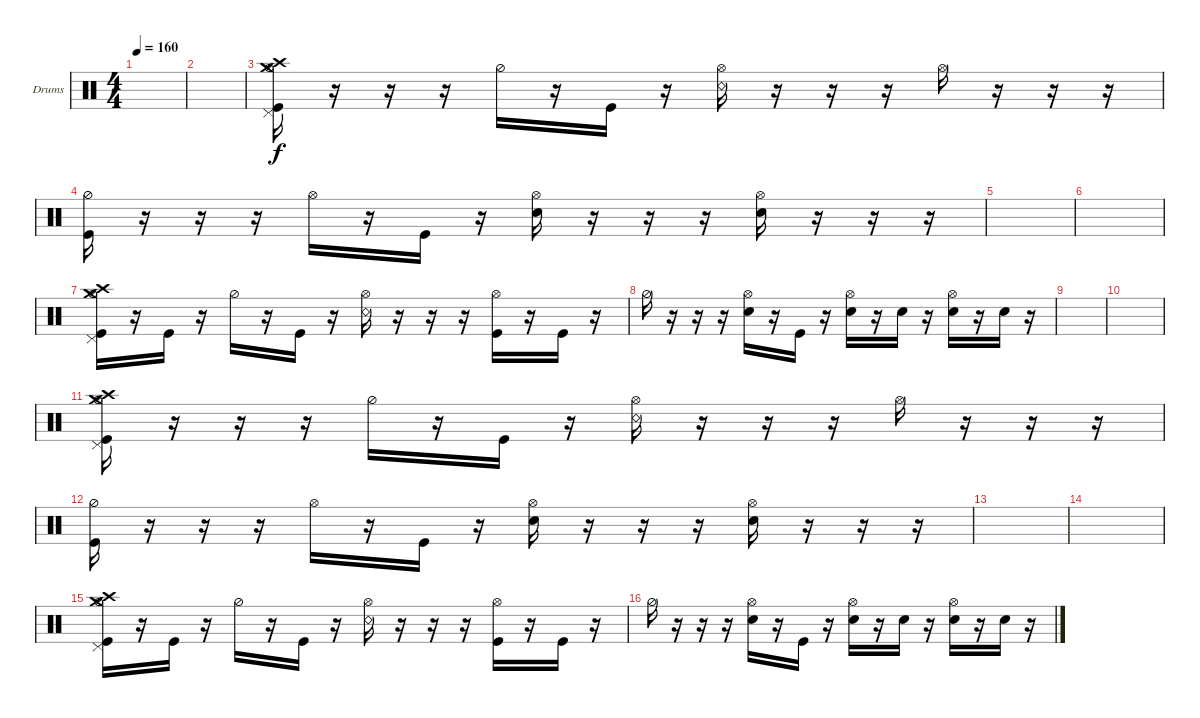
\defaultSystemsLayout 4
\bracketExtendMode groupsimilarinstruments
\firstSystemTrackNameOrientation horizontal
\otherSystemsTrackNameOrientation horizontal
\track ("Drumkit" "Drums") {solo instrument percussion}
\staff {score}
\articulation defaults
\ts (4 4)
\tempo 160
\clef neutral
\scale
0.472222
\ks c
|
\scale
0.263889 |
\scale
0.263889 ("Pedal Hi-Hat (hit)" "Crash medium (hit)" "Kick (hit)" "Hi-Hat (half)" "Crash high (hit)").16 r.16 r.16 r.16 "Hi-Hat (half)".16 r.16 "Kick (hit)".16 r.16 ("Hi-Hat (open)" "Snare (rim shot)").16 r.16 r.16 r.16 "Hi-Hat (open)".16 r.16 r.16 r.16 |
\scale
0.333333 ("Kick (hit)" "Hi-Hat (half)").16 r.16 r.16 r.16 "Hi-Hat (open)".16 r.16 "Kick (hit)".16 r.16 ("Hi-Hat (open)" "Snare (hit) 2").16 r.16 r.16 r.16 ("Hi-Hat (open)" "Snare (hit) 2").16 r.16 r.16 r.16 |
\scale
0.333333 |
\scale
0.333333 |
\scale
0.333333 ("Pedal Hi-Hat (hit)" "Crash medium (hit)" "Kick (hit)" "Hi-Hat (half)" "Crash high (hit)").16 r.16 "Kick (hit)".16 r.16 "Hi-Hat (half)".16 r.16 "Kick (hit)".16 r.16 ("Hi-Hat (open)" "Snare (rim shot)").16 r.16 r.16 r.16 ("Hi-Hat (open)" "Kick (hit)").16 r.16 "Kick (hit)".16 r.16 |
\scale
0.333333 "Hi-Hat (half)".16 r.16 r.16 r.16 ("Snare (hit) 2" "Hi-Hat (open)").16 r.16 "Kick (hit)".16 r.16 ("Hi-Hat (open)" "Snare (hit) 2").16 r.16 "Snare (hit) 2".16 r.16 ("Hi-Hat (open)" "Snare (hit) 2").16 r.16 "Snare (hit) 2".16 r.16 |
\scale
0.333333 |
\scale
0.333333 |
\scale
0.333333 ("Pedal Hi-Hat (hit)" "Crash medium (hit)" "Kick (hit)" "Hi-Hat (half)" "Crash high (hit)").16 r.16 r.16 r.16 "Hi-Hat (half)".16 r.16 "Kick (hit)".16 r.16 ("Hi-Hat (open)" "Snare (rim shot)").16 r.16 r.16 r.16 "Hi-Hat (open)".16 r.16 r.16 r.16 |
\scale
0.333333 ("Kick (hit)" "Hi-Hat (half)").16 r.16 r.16 r.16 "Hi-Hat (open)".16 r.16 "Kick (hit)".16 r.16 ("Hi-Hat (open)" "Snare (hit) 2").16 r.16 r.16 r.16 ("Hi-Hat (open)" "Snare (hit) 2").16 r.16 r.16 r.16 |
\scale
0.333333 |
\scale
0.333333 |
\scale
0.333333 ("Pedal Hi-Hat (hit)" "Crash medium (hit)" "Kick (hit)" "Hi-Hat (half)" "Crash high (hit)").16 r.16 "Kick (hit)".16 r.16 "Hi-Hat (half)".16 r.16 "Kick (hit)".16 r.16 ("Hi-Hat (open)" "Snare (rim shot)").16 r.16 r.16 r.16 ("Hi-Hat (open)" "Kick (hit)").16 r.16 "Kick (hit)".16 r.16 |
"Hi-Hat (half)".16 r.16 r.16 r.16 ("Snare (hit) 2" "Hi-Hat (open)").16 r.16 "Kick (hit)".16 r.16 ("Hi-Hat (open)" "Snare (hit) 2").16 r.16 "Snare (hit) 2".16 r.16 ("Hi-Hat (open)" "Snare (hit) 2").16 r.16 "Snare (hit) 2".16 r.16
